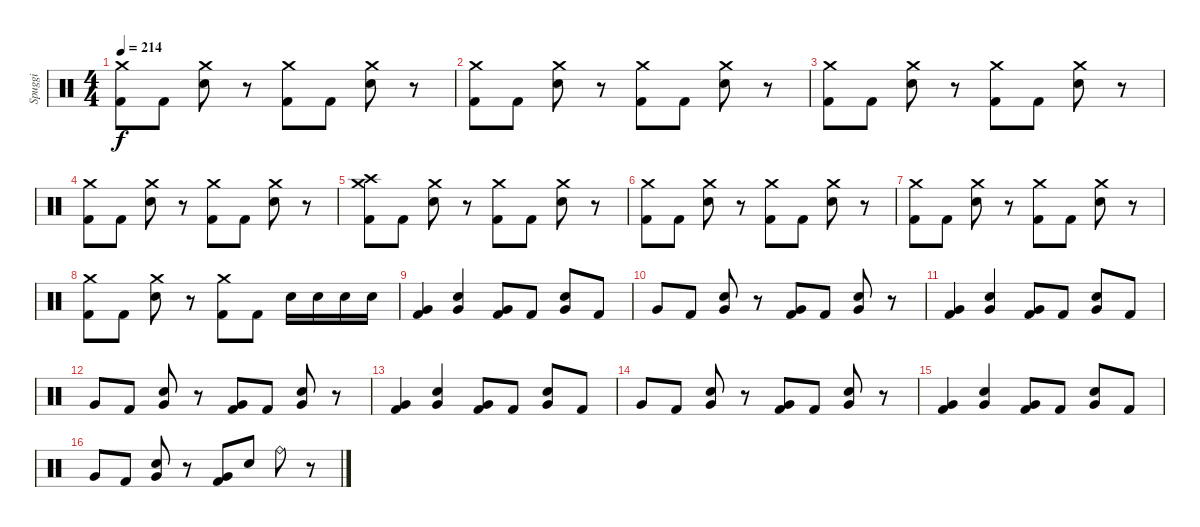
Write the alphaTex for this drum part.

\track ("Spuggi" "Spuggi") {instrument percussion}
\staff {score}
\articulation defaults
\ts (4 4)
\tempo 214
\clef neutral
\ks c
("Crash medium (hit)" "Kick (hit) 2").8{dy f} "Kick (hit) 2".8 ("Crash medium (hit)" "Snare (hit) 2").8 r.8 ("Crash medium (hit)" "Kick (hit) 2").8 "Kick (hit) 2".8 ("Crash medium (hit)" "Snare (hit) 2").8 r.8 |
("Crash medium (hit)" "Kick (hit) 2").8 "Kick (hit) 2".8 ("Crash medium (hit)" "Snare (hit) 2").8 r.8 ("Crash medium (hit)" "Kick (hit) 2").8 "Kick (hit) 2".8 ("Crash medium (hit)" "Snare (hit) 2").8 r.8 |
("Crash medium (hit)" "Kick (hit) 2").8 "Kick (hit) 2".8 ("Crash medium (hit)" "Snare (hit) 2").8 r.8 ("Crash medium (hit)" "Kick (hit) 2").8 "Kick (hit) 2".8 ("Crash medium (hit)" "Snare (hit) 2").8 r.8 |
("Crash medium (hit)" "Kick (hit) 2").8 "Kick (hit) 2".8 ("Crash medium (hit)" "Snare (hit) 2").8 r.8 ("Crash medium (hit)" "Kick (hit) 2").8 "Kick (hit) 2".8 ("Crash medium (hit)" "Snare (hit) 2").8 r.8 |
("Crash medium (hit)" "Crash high (hit)" "Kick (hit) 2").8 "Kick (hit) 2".8 ("Crash medium (hit)" "Snare (hit) 2").8 r.8 ("Crash medium (hit)" "Kick (hit) 2").8 "Kick (hit) 2".8 ("Crash medium (hit)" "Snare (hit) 2").8 r.8 |
("Crash medium (hit)" "Kick (hit) 2").8 "Kick (hit) 2".8 ("Crash medium (hit)" "Snare (hit) 2").8 r.8 ("Crash medium (hit)" "Kick (hit) 2").8 "Kick (hit) 2".8 ("Crash medium (hit)" "Snare (hit) 2").8 r.8 |
("Crash medium (hit)" "Kick (hit) 2").8 "Kick (hit) 2".8 ("Crash medium (hit)" "Snare (hit) 2").8 r.8 ("Crash medium (hit)" "Kick (hit) 2").8 "Kick (hit) 2".8 ("Crash medium (hit)" "Snare (hit) 2").8 r.8 |
("Crash medium (hit)" "Kick (hit) 2").8 "Kick (hit) 2".8 ("Crash medium (hit)" "Snare (hit) 2").8 r.8 ("Crash medium (hit)" "Kick (hit) 2").8 "Kick (hit) 2".8 "Snare (hit) 2".16 "Snare (hit) 2".16 "Snare (hit) 2".16 "Snare (hit) 2".16 |
("Very Low Tom (hit)" "Kick (hit) 2").4 ("Snare (hit) 2" "Very Low Tom (hit)").4 ("Very Low Tom (hit)" "Kick (hit) 2").8 "Kick (hit) 2".8 ("Snare (hit) 2" "Very Low Tom (hit)").8 "Kick (hit) 2".8 |
"Very Low Tom (hit)".8 "Kick (hit) 2".8 ("Snare (hit) 2" "Very Low Tom (hit)").8 r.8 ("Very Low Tom (hit)" "Kick (hit) 2").8 "Kick (hit) 2".8 ("Snare (hit) 2" "Very Low Tom (hit)").8 r.8 |
("Very Low Tom (hit)" "Kick (hit) 2").4 ("Snare (hit) 2" "Very Low Tom (hit)").4 ("Very Low Tom (hit)" "Kick (hit) 2").8 "Kick (hit) 2".8 ("Snare (hit) 2" "Very Low Tom (hit)").8 "Kick (hit) 2".8 |
"Very Low Tom (hit)".8 "Kick (hit) 2".8 ("Snare (hit) 2" "Very Low Tom (hit)").8 r.8 ("Very Low Tom (hit)" "Kick (hit) 2").8 "Kick (hit) 2".8 ("Snare (hit) 2" "Very Low Tom (hit)").8 r.8 |
("Very Low Tom (hit)" "Kick (hit) 2").4 ("Snare (hit) 2" "Very Low Tom (hit)").4 ("Very Low Tom (hit)" "Kick (hit) 2").8 "Kick (hit) 2".8 ("Snare (hit) 2" "Very Low Tom (hit)").8 "Kick (hit) 2".8 |
"Very Low Tom (hit)".8 "Kick (hit) 2".8 ("Snare (hit) 2" "Very Low Tom (hit)").8 r.8 ("Very Low Tom (hit)" "Kick (hit) 2").8 "Kick (hit) 2".8 ("Snare (hit) 2" "Very Low Tom (hit)").8 r.8 |
("Very Low Tom (hit)" "Kick (hit) 2").4 ("Snare (hit) 2" "Very Low Tom (hit)").4 ("Very Low Tom (hit)" "Kick (hit) 2").8 "Kick (hit) 2".8 ("Snare (hit) 2" "Very Low Tom (hit)").8 "Kick (hit) 2".8 |
"Very Low Tom (hit)".8 "Kick (hit) 2".8 ("Snare (hit) 2" "Very Low Tom (hit)").8 r.8 ("Very Low Tom (hit)" "Kick (hit) 2").8 "Snare (hit) 2".8 "Ride (bell)".8 r.8
